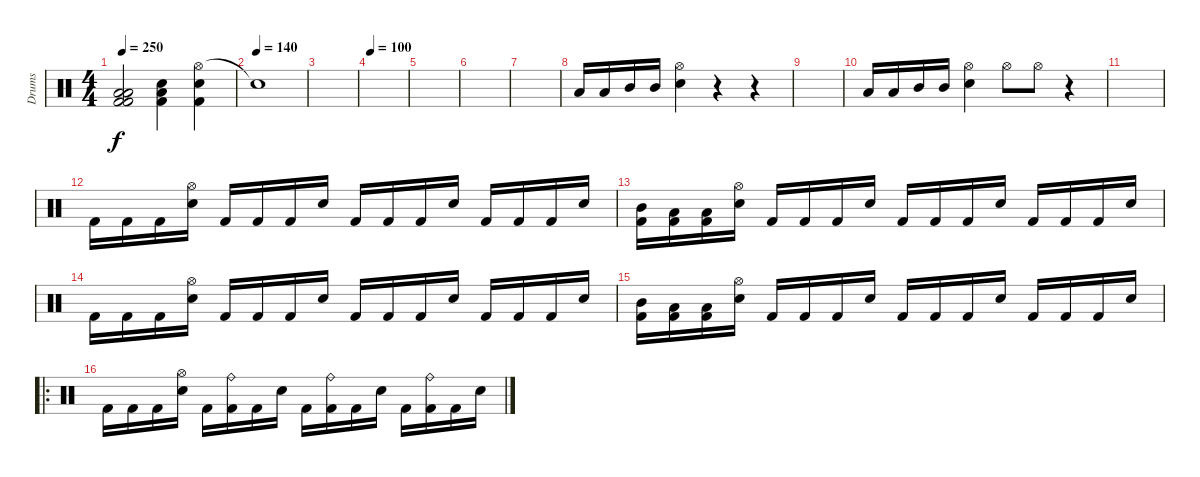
\track ("Drums" "Drums") {instrument percussion}
\staff {score}
\articulation defaults
\ts (4 4)
\tempo 250
\clef neutral
\ks c
("Low Tom (hit)" "Low Tom (hit)" "Kick (hit) 2" "Kick (hit) 2").2{dy f} ("Electric Snare (hit)" "Low Tom (hit)" "Kick (hit) 2").4 ("Hi-Hat (open)" "Electric Snare (hit)" "Kick (hit) 2").4 |
\tempo (140)
"Snare (hit)"{t}.1 |
|
\tempo 100
|
|
|
|
"Low Tom (hit)".16{volume 12} "Low Tom (hit)".16 "Mid Tom (hit)".16 "Mid Tom (hit)".16 ("Hi-Hat (open)" "Electric Snare (hit)").4 r.4 r.4 |
|
"Low Tom (hit)".16{volume 12} "Low Tom (hit)".16 "Mid Tom (hit)".16 "Mid Tom (hit)".16 ("Hi-Hat (open)" "Electric Snare (hit)").4 "Hi-Hat (open)".8 "Hi-Hat (open)".8 r.4 |
|
"Kick (hit) 2".16 "Kick (hit) 2".16 "Kick (hit) 2".16 ("Hi-Hat (open)" "Electric Snare (hit)").16 "Kick (hit) 2".16 "Kick (hit) 2".16 "Kick (hit) 2".16 "Electric Snare (hit)".16 "Kick (hit) 2".16 "Kick (hit) 2".16 "Kick (hit) 2".16 "Electric Snare (hit)".16 "Kick (hit) 2".16 "Kick (hit) 2".16 "Kick (hit) 2".16 "Electric Snare (hit)".16 |
("Mid Tom (hit)" "Kick (hit) 2").16 ("Low Tom (hit)" "Kick (hit) 2").16 ("Low Floor Tom (hit)" "Kick (hit) 2").16 ("Hi-Hat (open)" "Electric Snare (hit)").16 "Kick (hit) 2".16 "Kick (hit) 2".16 "Kick (hit) 2".16 "Electric Snare (hit)".16 "Kick (hit) 2".16 "Kick (hit) 2".16 "Kick (hit) 2".16 "Electric Snare (hit)".16 "Kick (hit) 2".16 "Kick (hit) 2".16 "Kick (hit) 2".16 "Electric Snare (hit)".16 |
"Kick (hit) 2".16 "Kick (hit) 2".16 "Kick (hit) 2".16 ("Hi-Hat (open)" "Electric Snare (hit)").16 "Kick (hit) 2".16 "Kick (hit) 2".16 "Kick (hit) 2".16 "Electric Snare (hit)".16 "Kick (hit) 2".16 "Kick (hit) 2".16 "Kick (hit) 2".16 "Electric Snare (hit)".16 "Kick (hit) 2".16 "Kick (hit) 2".16 "Kick (hit) 2".16 "Electric Snare (hit)".16 |
("Mid Tom (hit)" "Kick (hit) 2").16 ("Low Tom (hit)" "Kick (hit) 2").16 ("Low Floor Tom (hit)" "Kick (hit) 2").16 ("Hi-Hat (open)" "Electric Snare (hit)").16 "Kick (hit) 2".16 "Kick (hit) 2".16 "Kick (hit) 2".16 "Electric Snare (hit)".16 "Kick (hit) 2".16 "Kick (hit) 2".16 "Kick (hit) 2".16 "Electric Snare (hit)".16 "Kick (hit) 2".16 "Kick (hit) 2".16 "Kick (hit) 2".16 "Electric Snare (hit)".16 |
\ro "Kick (hit) 2".16 "Kick (hit) 2".16 "Kick (hit) 2".16
("Hi-Hat (open)" "Electric Snare (hit)").16 "Kick (hit) 2".16 ("Ride (bell)" "Kick (hit) 2").16 "Kick (hit) 2".16 "Electric Snare (hit)".16 "Kick (hit) 2".16 ("Ride (bell)" "Kick (hit) 2").16 "Kick (hit) 2".16 "Electric Snare (hit)".16 "Kick (hit) 2".16 ("Ride (bell)" "Kick (hit) 2").16 "Kick (hit) 2".16 "Electric Snare (hit)".16
